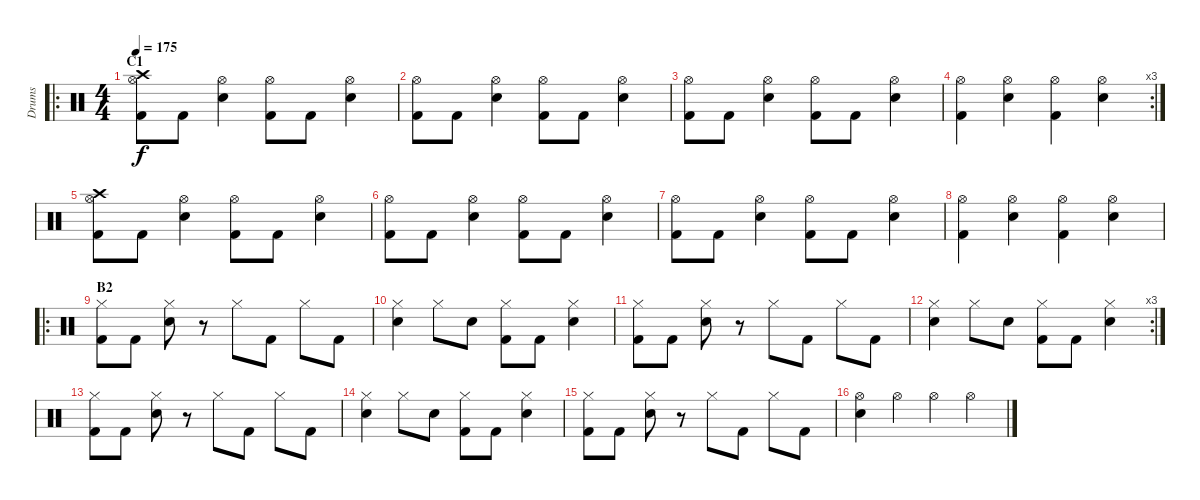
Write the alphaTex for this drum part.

\track ("Drums" "Drums") {instrument percussion}
\staff {score}
\articulation defaults
\ro
\ts (4 4)
\section ("" "C1")
\tempo 175
\clef neutral
\ks c
("Crash high (hit)" "Hi-Hat (open)" "Kick (hit) 2").8{dy f} "Kick (hit) 2".8 ("Hi-Hat (open)" "Electric Snare (hit)").4 ("Hi-Hat (open)" "Kick (hit) 2").8 "Kick (hit) 2".8 ("Hi-Hat (open)" "Electric Snare (hit)").4 |
("Hi-Hat (open)" "Kick (hit) 2").8 "Kick (hit) 2".8 ("Hi-Hat (open)" "Electric Snare (hit)").4 ("Hi-Hat (open)" "Kick (hit) 2").8 "Kick (hit) 2".8 ("Hi-Hat (open)" "Electric Snare (hit)").4 |
("Hi-Hat (open)" "Kick (hit) 2").8 "Kick (hit) 2".8 ("Hi-Hat (open)" "Electric Snare (hit)").4 ("Hi-Hat (open)" "Kick (hit) 2").8 "Kick (hit) 2".8 ("Hi-Hat (open)" "Electric Snare (hit)").4 |
\rc 3
("Hi-Hat (open)" "Kick (hit) 2").4 ("Hi-Hat (open)" "Electric Snare (hit)").4 ("Hi-Hat (open)" "Kick (hit) 2").4 ("Hi-Hat (open)" "Electric Snare (hit)").4 |
("Crash high (hit)" "Hi-Hat (open)" "Kick (hit) 2").8 "Kick (hit) 2".8 ("Hi-Hat (open)" "Electric Snare (hit)").4 ("Hi-Hat (open)" "Kick (hit) 2").8 "Kick (hit) 2".8 ("Hi-Hat (open)" "Electric Snare (hit)").4 |
("Hi-Hat (open)" "Kick (hit) 2").8 "Kick (hit) 2".8 ("Hi-Hat (open)" "Electric Snare (hit)").4 ("Hi-Hat (open)" "Kick (hit) 2").8 "Kick (hit) 2".8 ("Hi-Hat (open)" "Electric Snare (hit)").4 |
("Hi-Hat (open)" "Kick (hit) 2").8 "Kick (hit) 2".8 ("Hi-Hat (open)" "Electric Snare (hit)").4 ("Hi-Hat (open)" "Kick (hit) 2").8 "Kick (hit) 2".8 ("Hi-Hat (open)" "Electric Snare (hit)").4 |
("Hi-Hat (open)" "Kick (hit) 2").4 ("Hi-Hat (open)" "Electric Snare (hit)").4 ("Hi-Hat (open)" "Kick (hit) 2").4 ("Hi-Hat (open)" "Electric Snare (hit)").4 |
\ro
\section ("" "B2")
("Hi-Hat (closed)" "Kick (hit) 2").8 "Kick (hit) 2".8 ("Hi-Hat (closed)" "Electric Snare (hit)").8 r.8 "Hi-Hat (closed)".8 "Kick (hit) 2".8 "Hi-Hat (closed)".8 "Kick (hit) 2".8 |
("Hi-Hat (closed)" "Electric Snare (hit)").4 "Hi-Hat (closed)".8 "Electric Snare (hit)".8 ("Hi-Hat (closed)" "Kick (hit) 2").8 "Kick (hit) 2".8 ("Hi-Hat (closed)" "Electric Snare (hit)").4 |
("Hi-Hat (closed)" "Kick (hit) 2").8 "Kick (hit) 2".8 ("Hi-Hat (closed)" "Electric Snare (hit)").8 r.8 "Hi-Hat (closed)".8 "Kick (hit) 2".8 "Hi-Hat (closed)".8 "Kick (hit) 2".8 |
\rc 3
("Hi-Hat (closed)" "Electric Snare (hit)").4 "Hi-Hat (closed)".8 "Electric Snare (hit)".8 ("Hi-Hat (closed)" "Kick (hit) 2").8 "Kick (hit) 2".8 ("Hi-Hat (closed)" "Electric Snare (hit)").4 |
("Hi-Hat (closed)" "Kick (hit) 2").8 "Kick (hit) 2".8 ("Hi-Hat (closed)" "Electric Snare (hit)").8 r.8 "Hi-Hat (closed)".8 "Kick (hit) 2".8 "Hi-Hat (closed)".8 "Kick (hit) 2".8 |
("Hi-Hat (closed)" "Electric Snare (hit)").4 "Hi-Hat (closed)".8 "Electric Snare (hit)".8 ("Hi-Hat (closed)" "Kick (hit) 2").8 "Kick (hit) 2".8 ("Hi-Hat (closed)" "Electric Snare (hit)").4 |
("Hi-Hat (closed)" "Kick (hit) 2").8 "Kick (hit) 2".8 ("Hi-Hat (closed)" "Electric Snare (hit)").8 r.8 "Hi-Hat (closed)".8 "Kick (hit) 2".8 "Hi-Hat (closed)".8 "Kick (hit) 2".8 |
("Hi-Hat (open)" "Electric Snare (hit)").4 "Hi-Hat (open)".4 "Hi-Hat (open)".4 "Hi-Hat (open)".4
